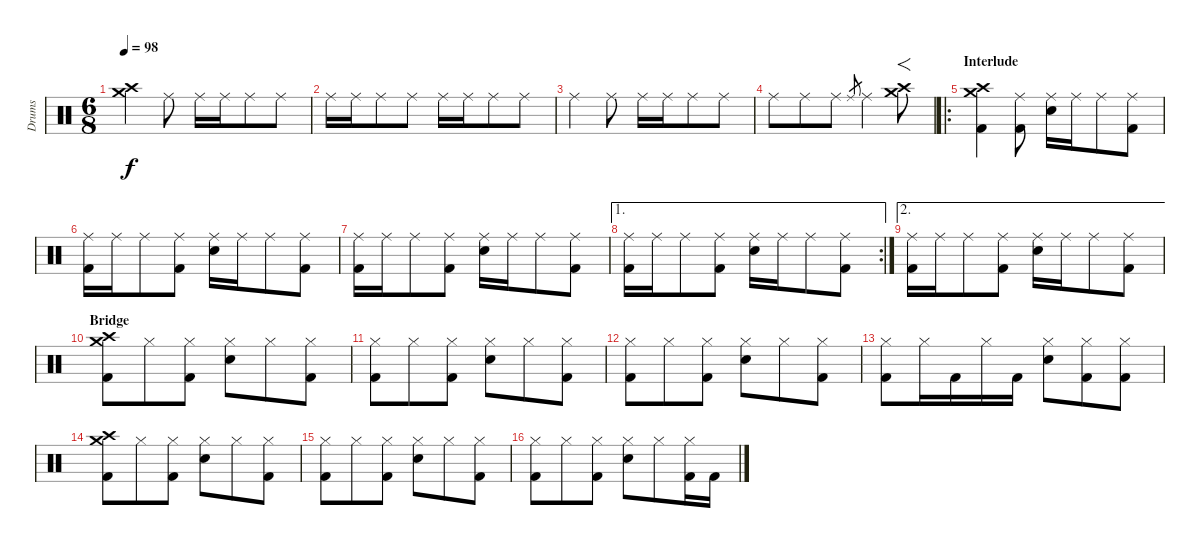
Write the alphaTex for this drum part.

\track ("Drums" "Drums") {instrument percussion}
\staff {score}
\articulation defaults
\ts (6 8)
\tempo 98
\clef neutral
\ks c
("Crash high (hit)" "Crash medium (hit)").4{dy f} "Ride (middle)".8 "Ride (middle)".16 "Ride (middle)".16 "Ride (middle)".8 "Ride (middle)".8 |
"Ride (middle)".16 "Ride (middle)".16 "Ride (middle)".8 "Ride (middle)".8 "Ride (middle)".16 "Ride (middle)".16 "Ride (middle)".8 "Ride (middle)".8 |
"Ride (middle)".4 "Ride (middle)".8 "Ride (middle)".16 "Ride (middle)".16 "Ride (middle)".8 "Ride (middle)".8 |
"Ride (middle)".8 "Ride (middle)".8 "Ride (middle)".8 "Ride (middle)".8{gr} "Ride (middle)".4 ("Crash high (hit)" "Crash medium (hit)").8{f} |
\ro
\section ("" "Interlude")
("Crash high (hit)" "Crash medium (hit)" "Kick (hit) 2").4 ("Ride (middle)" "Kick (hit) 2").8 ("Ride (middle)" "Electric Snare (hit)").16 "Ride (middle)".16 "Ride (middle)".8 ("Ride (middle)" "Kick (hit) 2").8 |
("Ride (middle)" "Kick (hit) 2").16 "Ride (middle)".16 "Ride (middle)".8 ("Ride (middle)" "Kick (hit) 2").8 ("Ride (middle)" "Electric Snare (hit)").16 "Ride (middle)".16 "Ride (middle)".8 ("Ride (middle)" "Kick (hit) 2").8 |
("Ride (middle)" "Kick (hit) 2").16 "Ride (middle)".16 "Ride (middle)".8 ("Ride (middle)" "Kick (hit) 2").8 ("Ride (middle)" "Electric Snare (hit)").16 "Ride (middle)".16 "Ride (middle)".8 ("Ride (middle)" "Kick (hit) 2").8 |
\ae 1
\rc 2
("Ride (middle)" "Kick (hit) 2").16 "Ride (middle)".16 "Ride (middle)".8 ("Ride (middle)" "Kick (hit) 2").8 ("Ride (middle)" "Electric Snare (hit)").16 "Ride (middle)".16 "Ride (middle)".8 ("Ride (middle)" "Kick (hit) 2").8 |
\ae 2
("Ride (middle)" "Kick (hit) 2").16 "Ride (middle)".16 "Ride (middle)".8 ("Ride (middle)" "Kick (hit) 2").8 ("Ride (middle)" "Electric Snare (hit)").16 "Ride (middle)".16 "Ride (middle)".8 ("Ride (middle)" "Kick (hit) 2").8 |
\section ("" "Bridge")
("Crash high (hit)" "Crash medium (hit)" "Kick (hit) 2").8 "Hi-Hat (closed)".8 ("Hi-Hat (closed)" "Kick (hit) 2").8 ("Hi-Hat (closed)" "Electric Snare (hit)").8 "Hi-Hat (closed)".8 ("Hi-Hat (closed)" "Kick (hit) 2").8 |
("Hi-Hat (closed)" "Kick (hit) 2").8 "Hi-Hat (closed)".8 ("Hi-Hat (closed)" "Kick (hit) 2").8 ("Hi-Hat (closed)" "Electric Snare (hit)").8 "Hi-Hat (closed)".8 ("Hi-Hat (closed)" "Kick (hit) 2").8 |
("Hi-Hat (closed)" "Kick (hit) 2").8 "Hi-Hat (closed)".8 ("Hi-Hat (closed)" "Kick (hit) 2").8 ("Hi-Hat (closed)" "Electric Snare (hit)").8 "Hi-Hat (closed)".8 ("Hi-Hat (closed)" "Kick (hit) 2").8 |
("Hi-Hat (closed)" "Kick (hit) 2").8 "Hi-Hat (closed)".16 "Kick (hit) 2".16 "Hi-Hat (closed)".16 "Kick (hit) 2".16 ("Hi-Hat (closed)" "Electric Snare (hit)").8 ("Hi-Hat (closed)" "Kick (hit) 2").8 ("Hi-Hat (closed)" "Kick (hit) 2").8 |
("Crash high (hit)" "Crash medium (hit)" "Kick (hit) 2").8 "Hi-Hat (closed)".8 ("Hi-Hat (closed)" "Kick (hit) 2").8 ("Hi-Hat (closed)" "Electric Snare (hit)").8 "Hi-Hat (closed)".8 ("Hi-Hat (closed)" "Kick (hit) 2").8 |
("Hi-Hat (closed)" "Kick (hit) 2").8 "Hi-Hat (closed)".8 ("Hi-Hat (closed)" "Kick (hit) 2").8 ("Hi-Hat (closed)" "Electric Snare (hit)").8 "Hi-Hat (closed)".8 ("Hi-Hat (closed)" "Kick (hit) 2").8 |
("Hi-Hat (closed)" "Kick (hit) 2").8 "Hi-Hat (closed)".8 ("Hi-Hat (closed)" "Kick (hit) 2").8 ("Hi-Hat (closed)" "Electric Snare (hit)").8 "Hi-Hat (closed)".8 ("Hi-Hat (closed)" "Kick (hit) 2").16 "Kick (hit) 2".16
